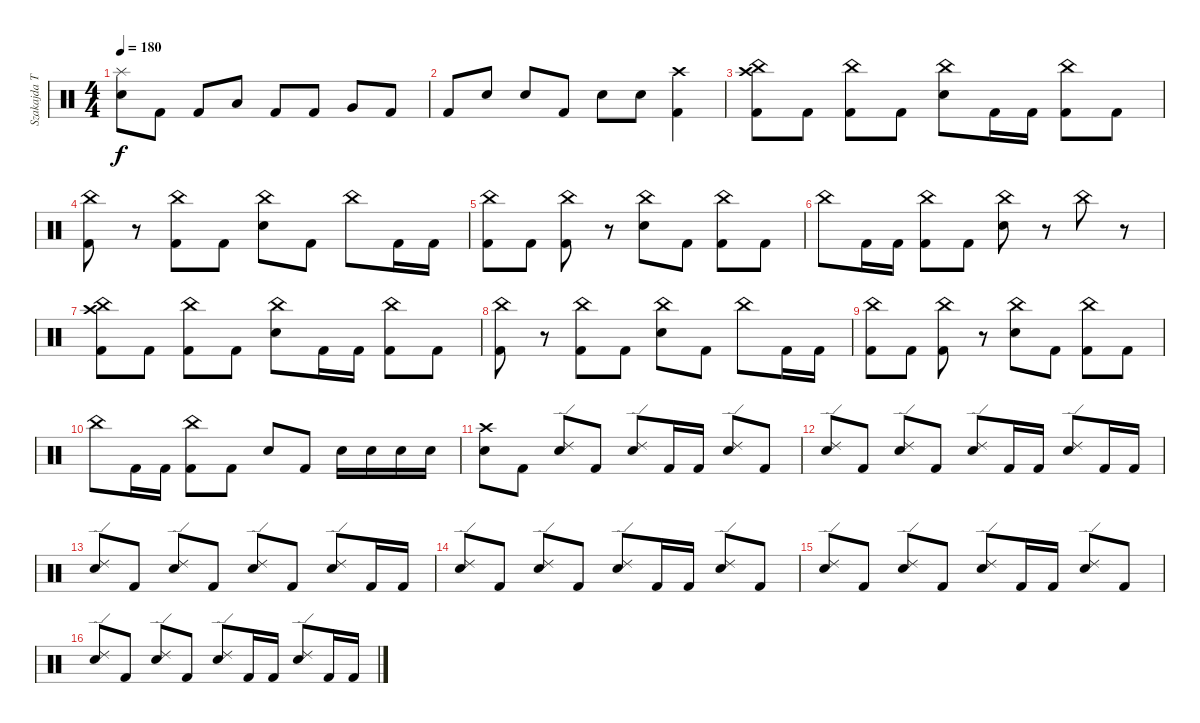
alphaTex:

\track ("Szakajda Tibi" "Szakajda T") {instrument percussion}
\staff {score}
\articulation defaults
\ts (4 4)
\tempo 180
\clef neutral
\ks c
("Splash (hit)" "Electric Snare (hit)").8{dy f} "Kick (hit) 2".8 "Kick (hit) 2".8 "Low Tom (hit)".8 "Kick (hit) 2".8 "Kick (hit) 2".8 "Very Low Tom (hit)".8 "Kick (hit) 2".8 |
"Kick (hit) 2".8 "Electric Snare (hit)".8 "Electric Snare (hit)".8 "Kick (hit) 2".8 "Electric Snare (hit)".8 "Electric Snare (hit)".8 ("Crash high (hit)" "Kick (hit) 2").4 |
("China (hit)" "Crash high (hit)" "Kick (hit) 2").8 "Kick (hit) 2".8 ("China (hit)" "Kick (hit) 2").8 "Kick (hit) 2".8 ("China (hit)" "Electric Snare (hit)").8 "Kick (hit) 2".16 "Kick (hit) 2".16 ("China (hit)" "Kick (hit) 2").8 "Kick (hit) 2".8 |
("China (hit)" "Kick (hit) 2").8 r.8 ("China (hit)" "Kick (hit) 2").8 "Kick (hit) 2".8 ("China (hit)" "Electric Snare (hit)").8 "Kick (hit) 2".8 "China (hit)".8 "Kick (hit) 2".16 "Kick (hit) 2".16 |
("China (hit)" "Kick (hit) 2").8 "Kick (hit) 2".8 ("China (hit)" "Kick (hit) 2").8 r.8 ("China (hit)" "Electric Snare (hit)").8 "Kick (hit) 2".8 ("China (hit)" "Kick (hit) 2").8 "Kick (hit) 2".8 |
"China (hit)".8 "Kick (hit) 2".16 "Kick (hit) 2".16 ("China (hit)" "Kick (hit) 2").8 "Kick (hit) 2".8 ("China (hit)" "Electric Snare (hit)").8 r.8 "China (hit)".8 r.8 |
("China (hit)" "Crash high (hit)" "Kick (hit) 2").8 "Kick (hit) 2".8 ("China (hit)" "Kick (hit) 2").8 "Kick (hit) 2".8 ("China (hit)" "Electric Snare (hit)").8 "Kick (hit) 2".16 "Kick (hit) 2".16 ("China (hit)" "Kick (hit) 2").8 "Kick (hit) 2".8 |
("China (hit)" "Kick (hit) 2").8 r.8 ("China (hit)" "Kick (hit) 2").8 "Kick (hit) 2".8 ("China (hit)" "Electric Snare (hit)").8 "Kick (hit) 2".8 "China (hit)".8 "Kick (hit) 2".16 "Kick (hit) 2".16 |
("China (hit)" "Kick (hit) 2").8 "Kick (hit) 2".8 ("China (hit)" "Kick (hit) 2").8 r.8 ("China (hit)" "Electric Snare (hit)").8 "Kick (hit) 2".8 ("China (hit)" "Kick (hit) 2").8 "Kick (hit) 2".8 |
"China (hit)".8 "Kick (hit) 2".16 "Kick (hit) 2".16 ("China (hit)" "Kick (hit) 2").8 "Kick (hit) 2".8 "Electric Snare (hit)".8 "Kick (hit) 2".8 "Electric Snare (hit)".16 "Electric Snare (hit)".16 "Electric Snare (hit)".16 "Electric Snare (hit)".16 |
("Crash high (hit)" "Electric Snare (hit)").8 "Kick (hit) 2".8 ("Ride (edge) 2" "Electric Snare (hit)").8 "Kick (hit) 2".8 ("Ride (edge) 2" "Electric Snare (hit)").8 "Kick (hit) 2".16 "Kick (hit) 2".16 ("Ride (edge) 2" "Electric Snare (hit)").8 "Kick (hit) 2".8 |
("Ride (edge) 2" "Electric Snare (hit)").8 "Kick (hit) 2".8 ("Ride (edge) 2" "Electric Snare (hit)").8 "Kick (hit) 2".8 ("Ride (edge) 2" "Electric Snare (hit)").8 "Kick (hit) 2".16 "Kick (hit) 2".16 ("Ride (edge) 2" "Electric Snare (hit)").8 "Kick (hit) 2".16 "Kick (hit) 2".16 |
("Ride (edge) 2" "Electric Snare (hit)").8 "Kick (hit) 2".8 ("Ride (edge) 2" "Electric Snare (hit)").8 "Kick (hit) 2".8 ("Ride (edge) 2" "Electric Snare (hit)").8 "Kick (hit) 2".8 ("Ride (edge) 2" "Electric Snare (hit)").8 "Kick (hit) 2".16 "Kick (hit) 2".16 |
("Ride (edge) 2" "Electric Snare (hit)").8 "Kick (hit) 2".8 ("Ride (edge) 2" "Electric Snare (hit)").8 "Kick (hit) 2".8 ("Ride (edge) 2" "Electric Snare (hit)").8 "Kick (hit) 2".16 "Kick (hit) 2".16 ("Ride (edge) 2" "Electric Snare (hit)").8 "Kick (hit) 2".8 |
("Ride (edge) 2" "Electric Snare (hit)").8 "Kick (hit) 2".8 ("Ride (edge) 2" "Electric Snare (hit)").8 "Kick (hit) 2".8 ("Ride (edge) 2" "Electric Snare (hit)").8 "Kick (hit) 2".16 "Kick (hit) 2".16 ("Ride (edge) 2" "Electric Snare (hit)").8 "Kick (hit) 2".8 |
("Ride (edge) 2" "Electric Snare (hit)").8 "Kick (hit) 2".8 ("Ride (edge) 2" "Electric Snare (hit)").8 "Kick (hit) 2".8 ("Ride (edge) 2" "Electric Snare (hit)").8 "Kick (hit) 2".16 "Kick (hit) 2".16 ("Ride (edge) 2" "Electric Snare (hit)").8 "Kick (hit) 2".16 "Kick (hit) 2".16
